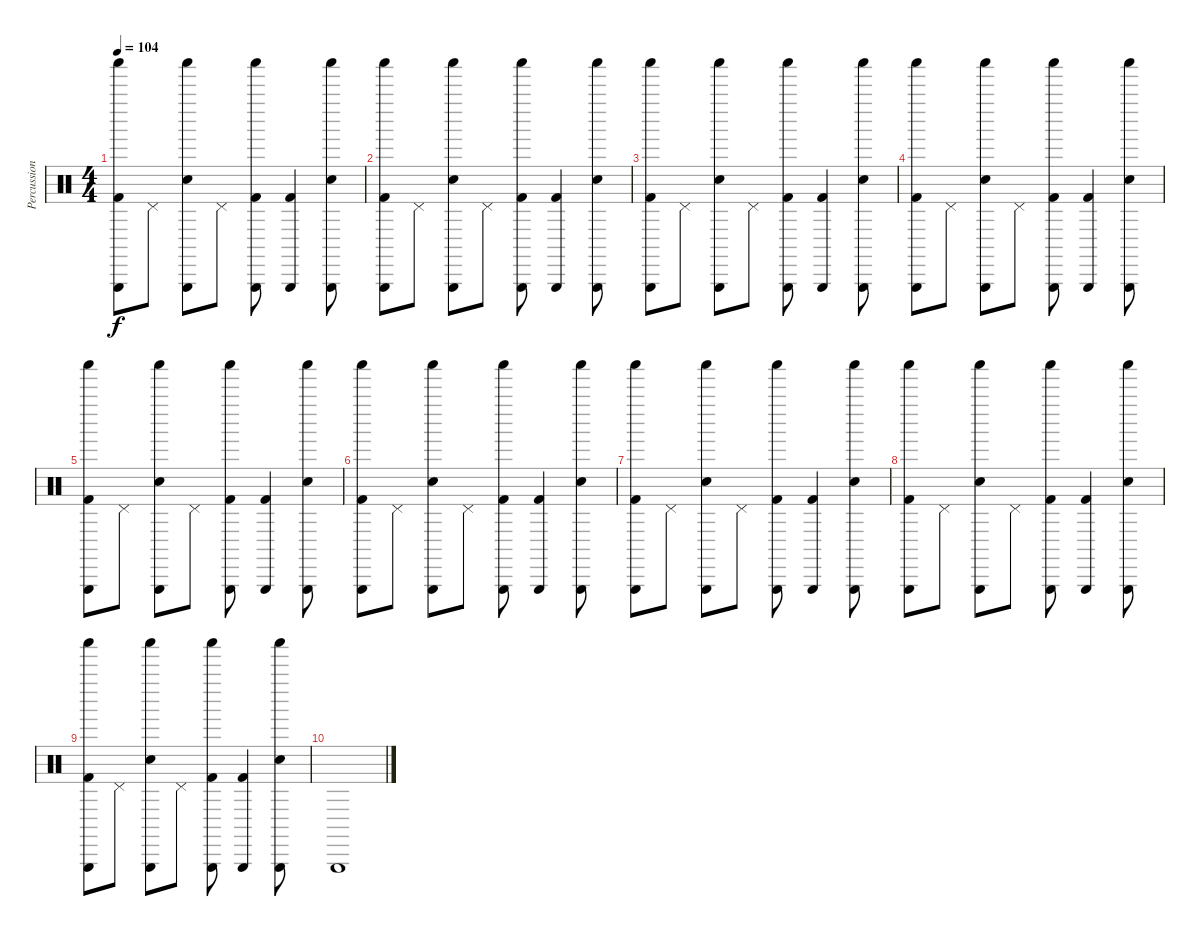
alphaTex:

\track ("Percussion" "Percussion") {instrument percussion}
\staff {score}
\articulation defaults
\ts (4 4)
\tempo 104
\clef neutral
\ks c
("Shaker (hit)" "Kick (hit) 2" "Triangle (hit)").8{dy f} "Pedal Hi-Hat (hit)".8 ("Shaker (hit)" "Electric Snare (hit)" "Triangle (hit)").8 "Pedal Hi-Hat (hit)".8 ("Shaker (hit)" "Kick (hit) 2" "Triangle (hit)").8 ("Kick (hit) 2" "Triangle (hit)").4 ("Shaker (hit)" "Electric Snare (hit)" "Triangle (hit)").8 |
("Shaker (hit)" "Kick (hit) 2" "Triangle (hit)").8 "Pedal Hi-Hat (hit)".8 ("Shaker (hit)" "Electric Snare (hit)" "Triangle (hit)").8 "Pedal Hi-Hat (hit)".8 ("Shaker (hit)" "Kick (hit) 2" "Triangle (hit)").8 ("Kick (hit) 2" "Triangle (hit)").4 ("Shaker (hit)" "Electric Snare (hit)" "Triangle (hit)").8 |
("Shaker (hit)" "Kick (hit) 2" "Triangle (hit)").8 "Pedal Hi-Hat (hit)".8 ("Shaker (hit)" "Electric Snare (hit)" "Triangle (hit)").8 "Pedal Hi-Hat (hit)".8 ("Shaker (hit)" "Kick (hit) 2" "Triangle (hit)").8 ("Kick (hit) 2" "Triangle (hit)").4 ("Shaker (hit)" "Electric Snare (hit)" "Triangle (hit)").8 |
("Shaker (hit)" "Kick (hit) 2" "Triangle (hit)").8 "Pedal Hi-Hat (hit)".8 ("Shaker (hit)" "Electric Snare (hit)" "Triangle (hit)").8 "Pedal Hi-Hat (hit)".8 ("Shaker (hit)" "Kick (hit) 2" "Triangle (hit)").8 ("Kick (hit) 2" "Triangle (hit)").4 ("Shaker (hit)" "Electric Snare (hit)" "Triangle (hit)").8 |
("Shaker (hit)" "Kick (hit) 2" "Triangle (hit)").8 "Pedal Hi-Hat (hit)".8 ("Shaker (hit)" "Electric Snare (hit)" "Triangle (hit)").8 "Pedal Hi-Hat (hit)".8 ("Shaker (hit)" "Kick (hit) 2" "Triangle (hit)").8 ("Kick (hit) 2" "Triangle (hit)").4 ("Shaker (hit)" "Electric Snare (hit)" "Triangle (hit)").8 |
("Shaker (hit)" "Kick (hit) 2" "Triangle (hit)").8 "Pedal Hi-Hat (hit)".8 ("Shaker (hit)" "Electric Snare (hit)" "Triangle (hit)").8 "Pedal Hi-Hat (hit)".8 ("Shaker (hit)" "Kick (hit) 2" "Triangle (hit)").8 ("Kick (hit) 2" "Triangle (hit)").4 ("Shaker (hit)" "Electric Snare (hit)" "Triangle (hit)").8 |
("Shaker (hit)" "Kick (hit) 2" "Triangle (hit)").8 "Pedal Hi-Hat (hit)".8 ("Shaker (hit)" "Electric Snare (hit)" "Triangle (hit)").8 "Pedal Hi-Hat (hit)".8 ("Shaker (hit)" "Kick (hit) 2" "Triangle (hit)").8 ("Kick (hit) 2" "Triangle (hit)").4 ("Shaker (hit)" "Electric Snare (hit)" "Triangle (hit)").8 |
("Shaker (hit)" "Kick (hit) 2" "Triangle (hit)").8 "Pedal Hi-Hat (hit)".8 ("Shaker (hit)" "Electric Snare (hit)" "Triangle (hit)").8 "Pedal Hi-Hat (hit)".8 ("Shaker (hit)" "Kick (hit) 2" "Triangle (hit)").8 ("Kick (hit) 2" "Triangle (hit)").4 ("Shaker (hit)" "Electric Snare (hit)" "Triangle (hit)").8 |
("Shaker (hit)" "Kick (hit) 2" "Triangle (hit)").8 "Pedal Hi-Hat (hit)".8 ("Shaker (hit)" "Electric Snare (hit)" "Triangle (hit)").8 "Pedal Hi-Hat (hit)".8 ("Shaker (hit)" "Kick (hit) 2" "Triangle (hit)").8 ("Kick (hit) 2" "Triangle (hit)").4 ("Shaker (hit)" "Electric Snare (hit)" "Triangle (hit)").8 |
"Triangle (hit)".1
